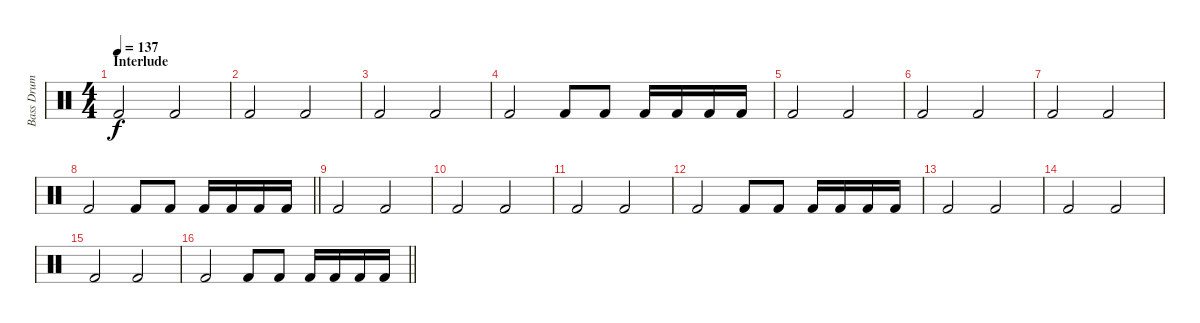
\track ("Bass Drum" "Bass Drum") {instrument percussion}
\staff {score}
\articulation defaults
\ts (4 4)
\section ("" "Interlude")
\tempo 137
\clef neutral
\ks c "Kick (hit) 2".2{dy f} "Kick (hit) 2".2
|
"Kick (hit) 2".2 "Kick (hit) 2".2 |
"Kick (hit) 2".2 "Kick (hit) 2".2 |
"Kick (hit) 2".2 "Kick (hit) 2".8 "Kick (hit) 2".8 "Kick (hit) 2".16 "Kick (hit) 2".16 "Kick (hit) 2".16 "Kick (hit) 2".16 |
"Kick (hit) 2".2 "Kick (hit) 2".2 |
"Kick (hit) 2".2 "Kick (hit) 2".2 |
"Kick (hit) 2".2 "Kick (hit) 2".2 |
\barLineRight lightlight "Kick (hit) 2".2 "Kick (hit) 2".8 "Kick (hit) 2".8 "Kick (hit) 2".16 "Kick (hit) 2".16 "Kick (hit) 2".16 "Kick (hit) 2".16
|
\section ("" "")
"Kick (hit) 2".2 "Kick (hit) 2".2 |
"Kick (hit) 2".2 "Kick (hit) 2".2 |
"Kick (hit) 2".2 "Kick (hit) 2".2 |
"Kick (hit) 2".2 "Kick (hit) 2".8 "Kick (hit) 2".8 "Kick (hit) 2".16 "Kick (hit) 2".16 "Kick (hit) 2".16 "Kick (hit) 2".16 |
"Kick (hit) 2".2 "Kick (hit) 2".2 |
"Kick (hit) 2".2 "Kick (hit) 2".2 |
"Kick (hit) 2".2 "Kick (hit) 2".2 |
\barLineRight lightlight "Kick (hit) 2".2 "Kick (hit) 2".8 "Kick (hit) 2".8 "Kick (hit) 2".16 "Kick (hit) 2".16 "Kick (hit) 2".16 "Kick (hit) 2".16
